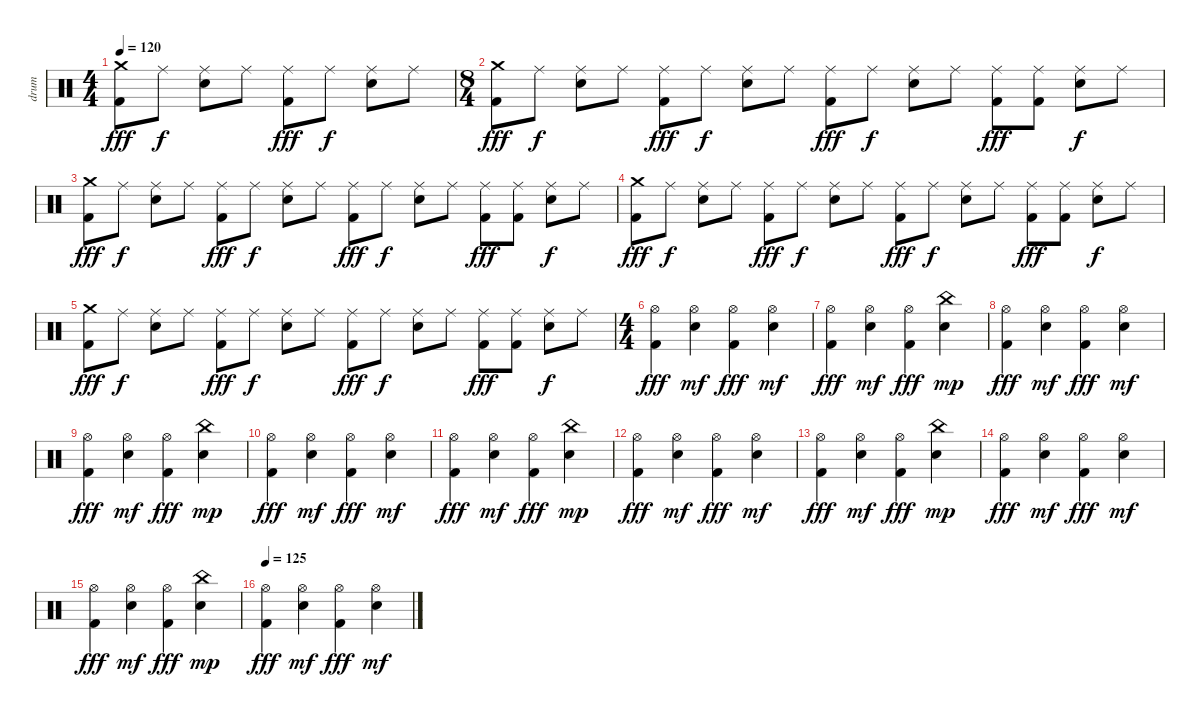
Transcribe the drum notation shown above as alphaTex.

\track ("drum" "drum") {instrument percussion}
\staff {score}
\articulation defaults
\ts (4 4)
\tempo 120
\clef neutral
\ks c
("Crash medium (hit)" "Kick (hit) 2").8{dy fff} "Ride (middle)".8{dy f} ("Ride (middle)" "Electric Snare (hit)").8 "Ride (middle)".8 ("Ride (middle)" "Kick (hit) 2").8{dy fff} "Ride (middle)".8{dy f} ("Ride (middle)" "Electric Snare (hit)").8 "Ride (middle)".8 |
\ts (8 4)
("Crash medium (hit)" "Kick (hit) 2").8{dy fff} "Ride (middle)".8{dy f} ("Ride (middle)" "Electric Snare (hit)").8 "Ride (middle)".8 ("Ride (middle)" "Kick (hit) 2").8{dy fff} "Ride (middle)".8{dy f} ("Ride (middle)" "Electric Snare (hit)").8 "Ride (middle)".8 ("Ride (middle)" "Kick (hit) 2").8{dy fff} "Ride (middle)".8{dy f} ("Ride (middle)" "Electric Snare (hit)").8 "Ride (middle)".8 ("Ride (middle)" "Kick (hit) 2").8{dy fff} ("Ride (middle)" "Kick (hit) 2").8 ("Ride (middle)" "Electric Snare (hit)").8{dy f} "Ride (middle)".8 |
("Crash medium (hit)" "Kick (hit) 2").8{dy fff} "Ride (middle)".8{dy f} ("Ride (middle)" "Electric Snare (hit)").8 "Ride (middle)".8 ("Ride (middle)" "Kick (hit) 2").8{dy fff} "Ride (middle)".8{dy f} ("Ride (middle)" "Electric Snare (hit)").8 "Ride (middle)".8 ("Ride (middle)" "Kick (hit) 2").8{dy fff} "Ride (middle)".8{dy f} ("Ride (middle)" "Electric Snare (hit)").8 "Ride (middle)".8 ("Ride (middle)" "Kick (hit) 2").8{dy fff} ("Ride (middle)" "Kick (hit) 2").8 ("Ride (middle)" "Electric Snare (hit)").8{dy f} "Ride (middle)".8 |
("Crash medium (hit)" "Kick (hit) 2").8{dy fff} "Ride (middle)".8{dy f} ("Ride (middle)" "Electric Snare (hit)").8 "Ride (middle)".8 ("Ride (middle)" "Kick (hit) 2").8{dy fff} "Ride (middle)".8{dy f} ("Ride (middle)" "Electric Snare (hit)").8 "Ride (middle)".8 ("Ride (middle)" "Kick (hit) 2").8{dy fff} "Ride (middle)".8{dy f} ("Ride (middle)" "Electric Snare (hit)").8 "Ride (middle)".8 ("Ride (middle)" "Kick (hit) 2").8{dy fff} ("Ride (middle)" "Kick (hit) 2").8 ("Ride (middle)" "Electric Snare (hit)").8{dy f} "Ride (middle)".8 |
("Crash medium (hit)" "Kick (hit) 2").8{dy fff} "Ride (middle)".8{dy f} ("Ride (middle)" "Electric Snare (hit)").8 "Ride (middle)".8 ("Ride (middle)" "Kick (hit) 2").8{dy fff} "Ride (middle)".8{dy f} ("Ride (middle)" "Electric Snare (hit)").8 "Ride (middle)".8 ("Ride (middle)" "Kick (hit) 2").8{dy fff} "Ride (middle)".8{dy f} ("Ride (middle)" "Electric Snare (hit)").8 "Ride (middle)".8 ("Ride (middle)" "Kick (hit) 2").8{dy fff} ("Ride (middle)" "Kick (hit) 2").8 ("Ride (middle)" "Electric Snare (hit)").8{dy f} "Ride (middle)".8 |
\ts (4 4)
("Hi-Hat (open)" "Kick (hit) 2").4{dy fff} ("Hi-Hat (open)" "Electric Snare (hit)").4{dy mf} ("Hi-Hat (open)" "Kick (hit) 2").4{dy fff} ("Hi-Hat (open)" "Electric Snare (hit)").4{dy mf} |
("Hi-Hat (open)" "Kick (hit) 2").4{dy fff} ("Hi-Hat (open)" "Electric Snare (hit)").4{dy mf} ("Hi-Hat (open)" "Kick (hit) 2").4{dy fff} ("China (hit)" "Electric Snare (hit)").4{dy mp} |
("Hi-Hat (open)" "Kick (hit) 2").4{dy fff} ("Hi-Hat (open)" "Electric Snare (hit)").4{dy mf} ("Hi-Hat (open)" "Kick (hit) 2").4{dy fff} ("Hi-Hat (open)" "Electric Snare (hit)").4{dy mf} |
("Hi-Hat (open)" "Kick (hit) 2").4{dy fff} ("Hi-Hat (open)" "Electric Snare (hit)").4{dy mf} ("Hi-Hat (open)" "Kick (hit) 2").4{dy fff} ("China (hit)" "Electric Snare (hit)").4{dy mp} |
("Hi-Hat (open)" "Kick (hit) 2").4{dy fff} ("Hi-Hat (open)" "Electric Snare (hit)").4{dy mf} ("Hi-Hat (open)" "Kick (hit) 2").4{dy fff} ("Hi-Hat (open)" "Electric Snare (hit)").4{dy mf} |
("Hi-Hat (open)" "Kick (hit) 2").4{dy fff} ("Hi-Hat (open)" "Electric Snare (hit)").4{dy mf} ("Hi-Hat (open)" "Kick (hit) 2").4{dy fff} ("China (hit)" "Electric Snare (hit)").4{dy mp} |
("Hi-Hat (open)" "Kick (hit) 2").4{dy fff} ("Hi-Hat (open)" "Electric Snare (hit)").4{dy mf} ("Hi-Hat (open)" "Kick (hit) 2").4{dy fff} ("Hi-Hat (open)" "Electric Snare (hit)").4{dy mf} |
("Hi-Hat (open)" "Kick (hit) 2").4{dy fff} ("Hi-Hat (open)" "Electric Snare (hit)").4{dy mf} ("Hi-Hat (open)" "Kick (hit) 2").4{dy fff} ("China (hit)" "Electric Snare (hit)").4{dy mp} |
("Hi-Hat (open)" "Kick (hit) 2").4{dy fff} ("Hi-Hat (open)" "Electric Snare (hit)").4{dy mf} ("Hi-Hat (open)" "Kick (hit) 2").4{dy fff} ("Hi-Hat (open)" "Electric Snare (hit)").4{dy mf} |
("Hi-Hat (open)" "Kick (hit) 2").4{dy fff} ("Hi-Hat (open)" "Electric Snare (hit)").4{dy mf} ("Hi-Hat (open)" "Kick (hit) 2").4{dy fff} ("China (hit)" "Electric Snare (hit)").4{dy mp} |
\tempo 125
("Hi-Hat (open)" "Kick (hit) 2").4{dy fff} ("Hi-Hat (open)" "Electric Snare (hit)").4{dy mf} ("Hi-Hat (open)" "Kick (hit) 2").4{dy fff} ("Hi-Hat (open)" "Electric Snare (hit)").4{dy mf}
